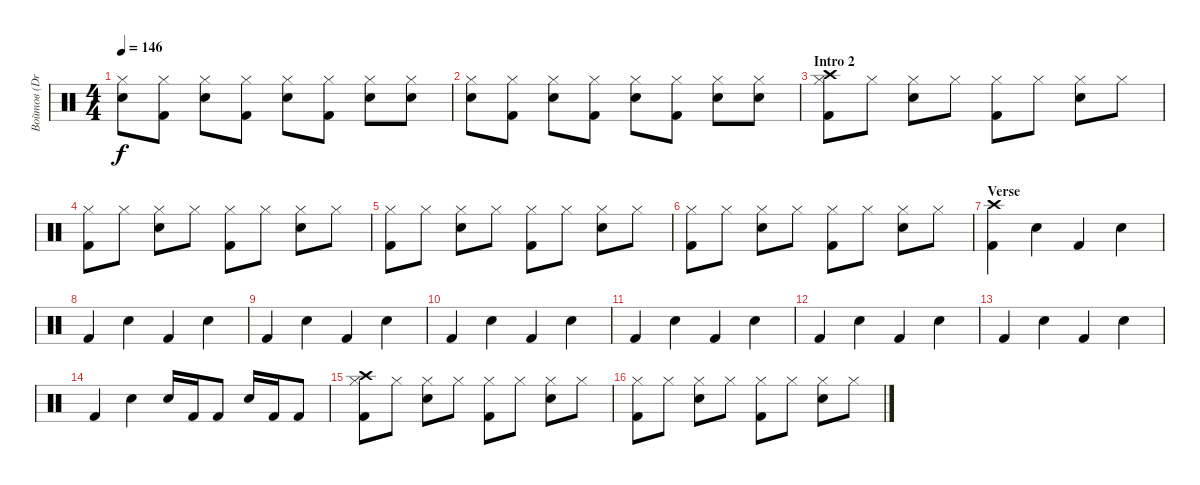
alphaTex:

\track ("Войтов (Drums)" "Войтов (Dr") {instrument percussion}
\staff {score}
\articulation defaults
\ts (4 4)
\tempo 146
\clef neutral
\ks c
("Electric Snare (hit)" "Hi-Hat (closed)").8{dy f} ("Kick (hit) 2" "Hi-Hat (closed)").8 ("Electric Snare (hit)" "Hi-Hat (closed)").8 ("Kick (hit) 2" "Hi-Hat (closed)").8 ("Electric Snare (hit)" "Hi-Hat (closed)").8 ("Kick (hit) 2" "Hi-Hat (closed)").8 ("Electric Snare (hit)" "Hi-Hat (closed)").8 ("Electric Snare (hit)" "Hi-Hat (closed)").8 |
("Electric Snare (hit)" "Hi-Hat (closed)").8 ("Kick (hit) 2" "Hi-Hat (closed)").8 ("Electric Snare (hit)" "Hi-Hat (closed)").8 ("Kick (hit) 2" "Hi-Hat (closed)").8 ("Electric Snare (hit)" "Hi-Hat (closed)").8 ("Kick (hit) 2" "Hi-Hat (closed)").8 ("Electric Snare (hit)" "Hi-Hat (closed)").8 ("Electric Snare (hit)" "Hi-Hat (closed)").8 |
\section ("" "Intro 2")
("Kick (hit) 2" "Hi-Hat (closed)" "Crash high (hit)").8 "Hi-Hat (closed)".8 ("Electric Snare (hit)" "Hi-Hat (closed)").8 "Hi-Hat (closed)".8 ("Kick (hit) 2" "Hi-Hat (closed)").8 "Hi-Hat (closed)".8 ("Electric Snare (hit)" "Hi-Hat (closed)").8 "Hi-Hat (closed)".8 |
("Kick (hit) 2" "Hi-Hat (closed)").8 "Hi-Hat (closed)".8 ("Electric Snare (hit)" "Hi-Hat (closed)").8 "Hi-Hat (closed)".8 ("Kick (hit) 2" "Hi-Hat (closed)").8 "Hi-Hat (closed)".8 ("Electric Snare (hit)" "Hi-Hat (closed)").8 "Hi-Hat (closed)".8 |
("Kick (hit) 2" "Hi-Hat (closed)").8 "Hi-Hat (closed)".8 ("Electric Snare (hit)" "Hi-Hat (closed)").8 "Hi-Hat (closed)".8 ("Kick (hit) 2" "Hi-Hat (closed)").8 "Hi-Hat (closed)".8 ("Electric Snare (hit)" "Hi-Hat (closed)").8 "Hi-Hat (closed)".8 |
("Kick (hit) 2" "Hi-Hat (closed)").8 "Hi-Hat (closed)".8 ("Electric Snare (hit)" "Hi-Hat (closed)").8 "Hi-Hat (closed)".8 ("Kick (hit) 2" "Hi-Hat (closed)").8 "Hi-Hat (closed)".8 ("Electric Snare (hit)" "Hi-Hat (closed)").8 "Hi-Hat (closed)".8 |
\section ("" "Verse")
("Kick (hit) 2" "Crash high (hit)").4 "Electric Snare (hit)".4 "Kick (hit) 2".4 "Electric Snare (hit)".4 |
"Kick (hit) 2".4 "Electric Snare (hit)".4 "Kick (hit) 2".4 "Electric Snare (hit)".4 |
"Kick (hit) 2".4 "Electric Snare (hit)".4 "Kick (hit) 2".4 "Electric Snare (hit)".4 |
"Kick (hit) 2".4 "Electric Snare (hit)".4 "Kick (hit) 2".4 "Electric Snare (hit)".4 |
"Kick (hit) 2".4 "Electric Snare (hit)".4 "Kick (hit) 2".4 "Electric Snare (hit)".4 |
"Kick (hit) 2".4 "Electric Snare (hit)".4 "Kick (hit) 2".4 "Electric Snare (hit)".4 |
"Kick (hit) 2".4 "Electric Snare (hit)".4 "Kick (hit) 2".4 "Electric Snare (hit)".4 |
"Kick (hit) 2".4 "Electric Snare (hit)".4 "Electric Snare (hit)".16 "Kick (hit) 2".16 "Kick (hit) 2".8 "Electric Snare (hit)".16 "Kick (hit) 2".16 "Kick (hit) 2".8 |
("Kick (hit) 2" "Hi-Hat (closed)" "Crash high (hit)").8 "Hi-Hat (closed)".8 ("Electric Snare (hit)" "Hi-Hat (closed)").8 "Hi-Hat (closed)".8 ("Kick (hit) 2" "Hi-Hat (closed)").8 "Hi-Hat (closed)".8 ("Electric Snare (hit)" "Hi-Hat (closed)").8 "Hi-Hat (closed)".8 |
("Kick (hit) 2" "Hi-Hat (closed)").8 "Hi-Hat (closed)".8 ("Electric Snare (hit)" "Hi-Hat (closed)").8 "Hi-Hat (closed)".8 ("Kick (hit) 2" "Hi-Hat (closed)").8 "Hi-Hat (closed)".8 ("Electric Snare (hit)" "Hi-Hat (closed)").8 "Hi-Hat (closed)".8
